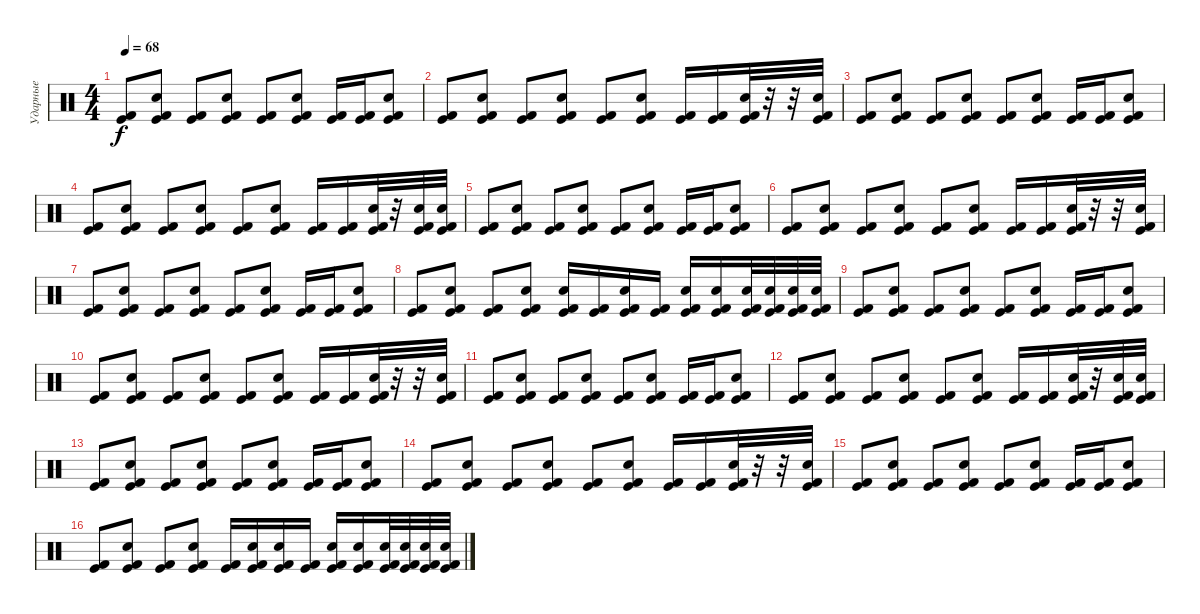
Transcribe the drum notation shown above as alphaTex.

\track ("Ударные" "Ударные") {instrument percussion}
\staff {score}
\articulation defaults
\ts (4 4)
\tempo 68
\clef neutral
\ks c
("Kick (hit) 2" "Kick (hit)").8{dy f} ("Snare (hit) 2" "Kick (hit) 2" "Kick (hit)").8 ("Kick (hit) 2" "Kick (hit)").8 ("Snare (hit) 2" "Kick (hit) 2" "Kick (hit)").8 ("Kick (hit) 2" "Kick (hit)").8 ("Snare (hit) 2" "Kick (hit) 2" "Kick (hit)").8 ("Kick (hit) 2" "Kick (hit)").16 ("Kick (hit) 2" "Kick (hit)").16 ("Snare (hit) 2" "Kick (hit) 2" "Kick (hit)").8 |
("Kick (hit) 2" "Kick (hit)").8 ("Snare (hit) 2" "Kick (hit) 2" "Kick (hit)").8 ("Kick (hit) 2" "Kick (hit)").8 ("Snare (hit) 2" "Kick (hit) 2" "Kick (hit)").8 ("Kick (hit) 2" "Kick (hit)").8 ("Snare (hit) 2" "Kick (hit) 2" "Kick (hit)").8 ("Kick (hit) 2" "Kick (hit)").16 ("Kick (hit) 2" "Kick (hit)").16 ("Snare (hit) 2" "Kick (hit) 2" "Kick (hit)").32 r.32 r.32 ("Snare (hit) 2" "Kick (hit) 2" "Kick (hit)").32 |
("Kick (hit) 2" "Kick (hit)").8 ("Snare (hit) 2" "Kick (hit) 2" "Kick (hit)").8 ("Kick (hit) 2" "Kick (hit)").8 ("Snare (hit) 2" "Kick (hit) 2" "Kick (hit)").8 ("Kick (hit) 2" "Kick (hit)").8 ("Snare (hit) 2" "Kick (hit) 2" "Kick (hit)").8 ("Kick (hit) 2" "Kick (hit)").16 ("Kick (hit) 2" "Kick (hit)").16 ("Snare (hit) 2" "Kick (hit) 2" "Kick (hit)").8 |
("Kick (hit) 2" "Kick (hit)").8 ("Snare (hit) 2" "Kick (hit) 2" "Kick (hit)").8 ("Kick (hit) 2" "Kick (hit)").8 ("Snare (hit) 2" "Kick (hit) 2" "Kick (hit)").8 ("Kick (hit) 2" "Kick (hit)").8 ("Snare (hit) 2" "Kick (hit) 2" "Kick (hit)").8 ("Kick (hit) 2" "Kick (hit)").16 ("Kick (hit) 2" "Kick (hit)").16 ("Snare (hit) 2" "Kick (hit) 2" "Kick (hit)").32 r.32 ("Snare (hit) 2" "Kick (hit) 2" "Kick (hit)").32 ("Snare (hit) 2" "Kick (hit) 2" "Kick (hit)").32 |
("Kick (hit) 2" "Kick (hit)").8 ("Snare (hit) 2" "Kick (hit) 2" "Kick (hit)").8 ("Kick (hit) 2" "Kick (hit)").8 ("Snare (hit) 2" "Kick (hit) 2" "Kick (hit)").8 ("Kick (hit) 2" "Kick (hit)").8 ("Snare (hit) 2" "Kick (hit) 2" "Kick (hit)").8 ("Kick (hit) 2" "Kick (hit)").16 ("Kick (hit) 2" "Kick (hit)").16 ("Snare (hit) 2" "Kick (hit) 2" "Kick (hit)").8 |
("Kick (hit) 2" "Kick (hit)").8 ("Snare (hit) 2" "Kick (hit) 2" "Kick (hit)").8 ("Kick (hit) 2" "Kick (hit)").8 ("Snare (hit) 2" "Kick (hit) 2" "Kick (hit)").8 ("Kick (hit) 2" "Kick (hit)").8 ("Snare (hit) 2" "Kick (hit) 2" "Kick (hit)").8 ("Kick (hit) 2" "Kick (hit)").16 ("Kick (hit) 2" "Kick (hit)").16 ("Snare (hit) 2" "Kick (hit) 2" "Kick (hit)").32 r.32 r.32 ("Snare (hit) 2" "Kick (hit) 2" "Kick (hit)").32 |
("Kick (hit) 2" "Kick (hit)").8 ("Snare (hit) 2" "Kick (hit) 2" "Kick (hit)").8 ("Kick (hit) 2" "Kick (hit)").8 ("Snare (hit) 2" "Kick (hit) 2" "Kick (hit)").8 ("Kick (hit) 2" "Kick (hit)").8 ("Snare (hit) 2" "Kick (hit) 2" "Kick (hit)").8 ("Kick (hit) 2" "Kick (hit)").16 ("Kick (hit) 2" "Kick (hit)").16 ("Snare (hit) 2" "Kick (hit) 2" "Kick (hit)").8 |
("Kick (hit) 2" "Kick (hit)").8 ("Snare (hit) 2" "Kick (hit) 2" "Kick (hit)").8 ("Kick (hit) 2" "Kick (hit)").8 ("Snare (hit) 2" "Kick (hit) 2" "Kick (hit)").8 ("Snare (hit) 2" "Kick (hit) 2" "Kick (hit)").16 ("Kick (hit) 2" "Kick (hit)").16 ("Snare (hit) 2" "Kick (hit) 2" "Kick (hit)").16 ("Kick (hit) 2" "Kick (hit)").16 ("Snare (hit) 2" "Kick (hit) 2" "Kick (hit)").16 ("Snare (hit) 2" "Kick (hit) 2" "Kick (hit)").16 ("Snare (hit) 2" "Kick (hit) 2" "Kick (hit)").32 ("Snare (hit) 2" "Kick (hit) 2" "Kick (hit)").32 ("Snare (hit) 2" "Kick (hit) 2" "Kick (hit)").32 ("Snare (hit) 2" "Kick (hit) 2" "Kick (hit)").32 |
("Kick (hit) 2" "Kick (hit)").8 ("Snare (hit) 2" "Kick (hit) 2" "Kick (hit)").8 ("Kick (hit) 2" "Kick (hit)").8 ("Snare (hit) 2" "Kick (hit) 2" "Kick (hit)").8 ("Kick (hit) 2" "Kick (hit)").8 ("Snare (hit) 2" "Kick (hit) 2" "Kick (hit)").8 ("Kick (hit) 2" "Kick (hit)").16 ("Kick (hit) 2" "Kick (hit)").16 ("Snare (hit) 2" "Kick (hit) 2" "Kick (hit)").8 |
("Kick (hit) 2" "Kick (hit)").8 ("Snare (hit) 2" "Kick (hit) 2" "Kick (hit)").8 ("Kick (hit) 2" "Kick (hit)").8 ("Snare (hit) 2" "Kick (hit) 2" "Kick (hit)").8 ("Kick (hit) 2" "Kick (hit)").8 ("Snare (hit) 2" "Kick (hit) 2" "Kick (hit)").8 ("Kick (hit) 2" "Kick (hit)").16 ("Kick (hit) 2" "Kick (hit)").16 ("Snare (hit) 2" "Kick (hit) 2" "Kick (hit)").32 r.32 r.32 ("Snare (hit) 2" "Kick (hit) 2" "Kick (hit)").32 |
("Kick (hit) 2" "Kick (hit)").8 ("Snare (hit) 2" "Kick (hit) 2" "Kick (hit)").8 ("Kick (hit) 2" "Kick (hit)").8 ("Snare (hit) 2" "Kick (hit) 2" "Kick (hit)").8 ("Kick (hit) 2" "Kick (hit)").8 ("Snare (hit) 2" "Kick (hit) 2" "Kick (hit)").8 ("Kick (hit) 2" "Kick (hit)").16 ("Kick (hit) 2" "Kick (hit)").16 ("Snare (hit) 2" "Kick (hit) 2" "Kick (hit)").8 |
("Kick (hit) 2" "Kick (hit)").8 ("Snare (hit) 2" "Kick (hit) 2" "Kick (hit)").8 ("Kick (hit) 2" "Kick (hit)").8 ("Snare (hit) 2" "Kick (hit) 2" "Kick (hit)").8 ("Kick (hit) 2" "Kick (hit)").8 ("Snare (hit) 2" "Kick (hit) 2" "Kick (hit)").8 ("Kick (hit) 2" "Kick (hit)").16 ("Kick (hit) 2" "Kick (hit)").16 ("Snare (hit) 2" "Kick (hit) 2" "Kick (hit)").32 r.32 ("Snare (hit) 2" "Kick (hit) 2" "Kick (hit)").32 ("Snare (hit) 2" "Kick (hit) 2" "Kick (hit)").32 |
("Kick (hit) 2" "Kick (hit)").8 ("Snare (hit) 2" "Kick (hit) 2" "Kick (hit)").8 ("Kick (hit) 2" "Kick (hit)").8 ("Snare (hit) 2" "Kick (hit) 2" "Kick (hit)").8 ("Kick (hit) 2" "Kick (hit)").8 ("Snare (hit) 2" "Kick (hit) 2" "Kick (hit)").8 ("Kick (hit) 2" "Kick (hit)").16 ("Kick (hit) 2" "Kick (hit)").16 ("Snare (hit) 2" "Kick (hit) 2" "Kick (hit)").8 |
("Kick (hit) 2" "Kick (hit)").8 ("Snare (hit) 2" "Kick (hit) 2" "Kick (hit)").8 ("Kick (hit) 2" "Kick (hit)").8 ("Snare (hit) 2" "Kick (hit) 2" "Kick (hit)").8 ("Kick (hit) 2" "Kick (hit)").8 ("Snare (hit) 2" "Kick (hit) 2" "Kick (hit)").8 ("Kick (hit) 2" "Kick (hit)").16 ("Kick (hit) 2" "Kick (hit)").16 ("Snare (hit) 2" "Kick (hit) 2" "Kick (hit)").32 r.32 r.32 ("Snare (hit) 2" "Kick (hit) 2" "Kick (hit)").32 |
("Kick (hit) 2" "Kick (hit)").8 ("Snare (hit) 2" "Kick (hit) 2" "Kick (hit)").8 ("Kick (hit) 2" "Kick (hit)").8 ("Snare (hit) 2" "Kick (hit) 2" "Kick (hit)").8 ("Kick (hit) 2" "Kick (hit)").8 ("Snare (hit) 2" "Kick (hit) 2" "Kick (hit)").8 ("Kick (hit) 2" "Kick (hit)").16 ("Kick (hit) 2" "Kick (hit)").16 ("Snare (hit) 2" "Kick (hit) 2" "Kick (hit)").8 |
("Kick (hit) 2" "Kick (hit)").8 ("Snare (hit) 2" "Kick (hit) 2" "Kick (hit)").8 ("Kick (hit) 2" "Kick (hit)").8 ("Snare (hit) 2" "Kick (hit) 2" "Kick (hit)").8 ("Kick (hit) 2" "Kick (hit)").16 ("Snare (hit) 2" "Kick (hit) 2" "Kick (hit)").16 ("Snare (hit) 2" "Kick (hit) 2" "Kick (hit)").16 ("Kick (hit) 2" "Kick (hit)").16 ("Snare (hit) 2" "Kick (hit) 2" "Kick (hit)").16 ("Snare (hit) 2" "Kick (hit) 2" "Kick (hit)").16 ("Snare (hit) 2" "Kick (hit) 2" "Kick (hit)").32 ("Snare (hit) 2" "Kick (hit) 2" "Kick (hit)").32 ("Snare (hit) 2" "Kick (hit) 2" "Kick (hit)").32 ("Snare (hit) 2" "Kick (hit) 2" "Kick (hit)").32
